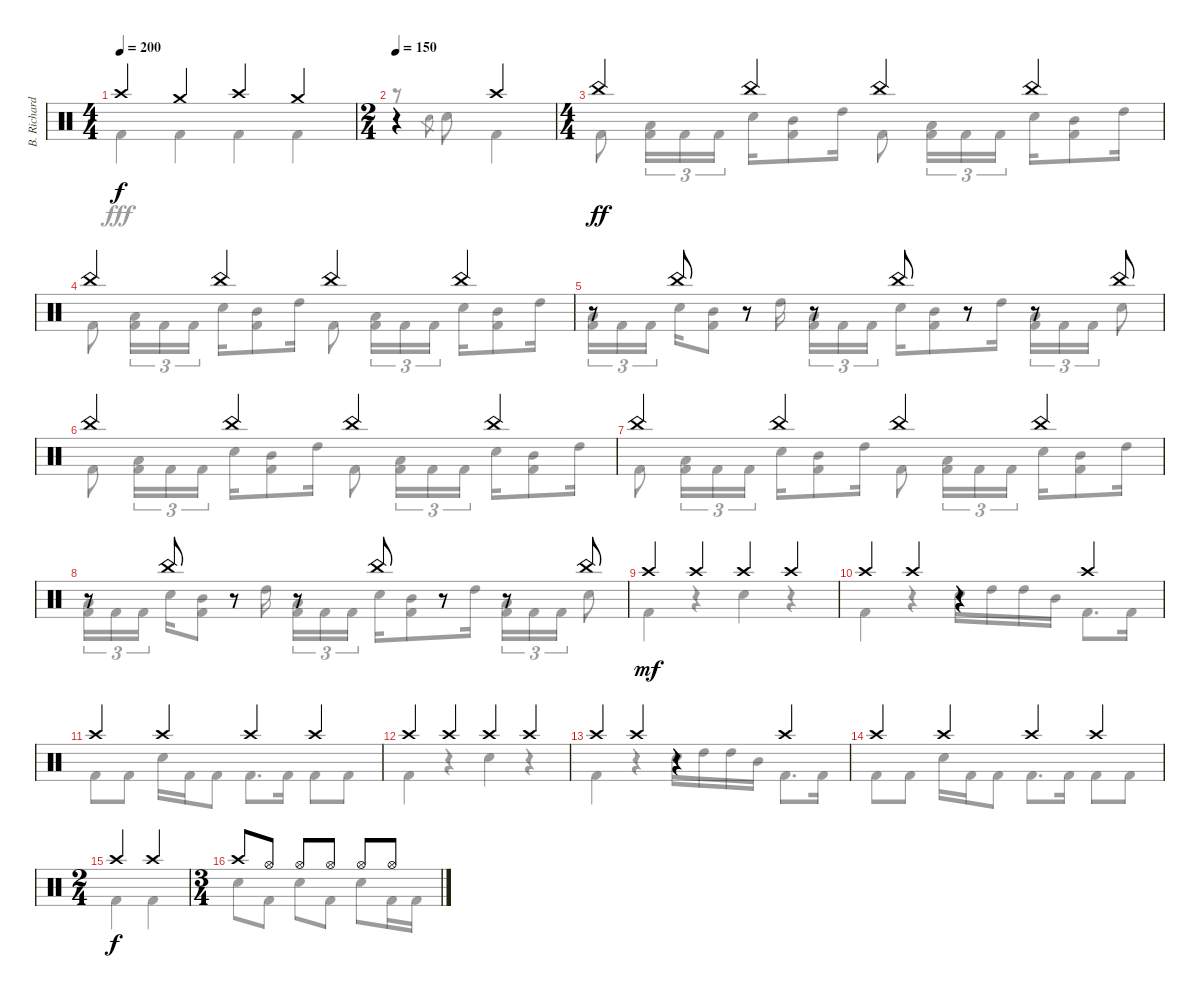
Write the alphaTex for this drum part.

\track ("B. Richardson Drums" "B. Richard") {instrument percussion}
\staff {score}
\articulation defaults
\voice
\ts (4 4)
\tempo 200
\clef neutral
\ks c "Crash high (hit)".4{dy f} "Crash medium (hit)".4 "Crash high (hit)".4 "Crash medium (hit)".4
|
\ts (2 4)
\tempo 150
r.4 "Crash high (hit)".4 |
\ts (4 4)
"China (hit)".4{dy ff} "China (hit)".4 "China (hit)".4 "China (hit)".4 |
"China (hit)".4 "China (hit)".4 "China (hit)".4 "China (hit)".4 |
r.8 "China (hit)".8 r.8 r.8 "China (hit)".8 r.8 r.8 "China (hit)".8 |
"China (hit)".4 "China (hit)".4 "China (hit)".4 "China (hit)".4 |
"China (hit)".4 "China (hit)".4 "China (hit)".4 "China (hit)".4 |
r.8 "China (hit)".8 r.8 r.8 "China (hit)".8 r.8 r.8 "China (hit)".8 |
"Crash high (hit)".4{dy mf} "Crash high (hit)".4 "Crash high (hit)".4 "Crash high (hit)".4 |
"Crash high (hit)".4 "Crash high (hit)".4 r.4 "Crash high (hit)".4 |
"Crash high (hit)".4 "Crash high (hit)".4 "Crash high (hit)".4 "Crash high (hit)".4 |
"Crash high (hit)".4 "Crash high (hit)".4 "Crash high (hit)".4 "Crash high (hit)".4 |
"Crash high (hit)".4 "Crash high (hit)".4 r.4 "Crash high (hit)".4 |
"Crash high (hit)".4 "Crash high (hit)".4 "Crash high (hit)".4 "Crash high (hit)".4 |
\ts (2 4)
"Crash high (hit)".4{dy f} "Crash high (hit)".4 |
\ts (3 4)
"Crash high (hit)".8 "Hi-Hat (open)".8 "Hi-Hat (open)".8 "Hi-Hat (open)".8 "Hi-Hat (open)".8 "Hi-Hat (open)".8
\voice
\clef neutral
\ottava regular
\simile none
\ks c "Kick (hit) 2".4{dy fff} "Kick (hit) 2".4 "Kick (hit) 2".4 "Kick (hit) 2".4
|
r.8 "Electric Snare (hit)".8{gr} "Electric Snare (hit)".8 "Kick (hit) 2".4 |
"Kick (hit) 2".8 ("Low Tom (hit)" "Kick (hit) 2").16{tu (3 2)} "Kick (hit) 2".16{tu (3 2)} "Kick (hit) 2".16{tu (3 2)} "Electric Snare (hit)".16 ("Mid Tom (hit)" "Kick (hit) 2").8 "High Tom (hit)".16 "Kick (hit) 2".8 ("Low Tom (hit)" "Kick (hit) 2").16{tu (3 2)} "Kick (hit) 2".16{tu (3 2)} "Kick (hit) 2".16{tu (3 2)} "Electric Snare (hit)".16 ("Mid Tom (hit)" "Kick (hit) 2").8 "High Tom (hit)".16 |
"Kick (hit) 2".8 ("Low Tom (hit)" "Kick (hit) 2").16{tu (3 2)} "Kick (hit) 2".16{tu (3 2)} "Kick (hit) 2".16{tu (3 2)} "Electric Snare (hit)".16 ("Mid Tom (hit)" "Kick (hit) 2").8 "High Tom (hit)".16 "Kick (hit) 2".8 ("Low Tom (hit)" "Kick (hit) 2").16{tu (3 2)} "Kick (hit) 2".16{tu (3 2)} "Kick (hit) 2".16{tu (3 2)} "Electric Snare (hit)".16 ("Mid Tom (hit)" "Kick (hit) 2").8 "High Tom (hit)".16 |
("Low Tom (hit)" "Kick (hit) 2").16{tu (3 2)} "Kick (hit) 2".16{tu (3 2)} "Kick (hit) 2".16{tu (3 2) beam splitsecondary} "Electric Snare (hit)".16 ("Mid Tom (hit)" "Kick (hit) 2").8 "High Tom (hit)".16{beam splitsecondary} ("Low Tom (hit)" "Kick (hit) 2").16{tu (3 2)} "Kick (hit) 2".16{tu (3 2)} "Kick (hit) 2".16{tu (3 2)} "Electric Snare (hit)".16 ("Mid Tom (hit)" "Kick (hit) 2").8 "High Tom (hit)".16 ("Low Tom (hit)" "Kick (hit) 2").16{tu (3 2)} "Kick (hit) 2".16{tu (3 2)} "Kick (hit) 2".16{tu (3 2)} "Electric Snare (hit)".8 |
"Kick (hit) 2".8 ("Low Tom (hit)" "Kick (hit) 2").16{tu (3 2)} "Kick (hit) 2".16{tu (3 2)} "Kick (hit) 2".16{tu (3 2)} "Electric Snare (hit)".16 ("Mid Tom (hit)" "Kick (hit) 2").8 "High Tom (hit)".16 "Kick (hit) 2".8 ("Low Tom (hit)" "Kick (hit) 2").16{tu (3 2)} "Kick (hit) 2".16{tu (3 2)} "Kick (hit) 2".16{tu (3 2)} "Electric Snare (hit)".16 ("Mid Tom (hit)" "Kick (hit) 2").8 "High Tom (hit)".16 |
"Kick (hit) 2".8 ("Low Tom (hit)" "Kick (hit) 2").16{tu (3 2)} "Kick (hit) 2".16{tu (3 2)} "Kick (hit) 2".16{tu (3 2)} "Electric Snare (hit)".16 ("Mid Tom (hit)" "Kick (hit) 2").8 "High Tom (hit)".16 "Kick (hit) 2".8 ("Low Tom (hit)" "Kick (hit) 2").16{tu (3 2)} "Kick (hit) 2".16{tu (3 2)} "Kick (hit) 2".16{tu (3 2)} "Electric Snare (hit)".16 ("Mid Tom (hit)" "Kick (hit) 2").8 "High Tom (hit)".16 |
("Low Tom (hit)" "Kick (hit) 2").16{tu (3 2)} "Kick (hit) 2".16{tu (3 2)} "Kick (hit) 2".16{tu (3 2) beam splitsecondary} "Electric Snare (hit)".16 ("Mid Tom (hit)" "Kick (hit) 2").8 "High Tom (hit)".16{beam splitsecondary} ("Low Tom (hit)" "Kick (hit) 2").16{tu (3 2)} "Kick (hit) 2".16{tu (3 2)} "Kick (hit) 2".16{tu (3 2)} "Electric Snare (hit)".16 ("Mid Tom (hit)" "Kick (hit) 2").8 "High Tom (hit)".16 ("Low Tom (hit)" "Kick (hit) 2").16{tu (3 2)} "Kick (hit) 2".16{tu (3 2)} "Kick (hit) 2".16{tu (3 2)} "Electric Snare (hit)".8 |
"Kick (hit) 2".4 r.4 "Electric Snare (hit)".4 r.4 |
"Kick (hit) 2".4 r.4 "Electric Snare (hit)".16 "High Tom (hit)".16 "High Tom (hit)".16 "Mid Tom (hit)".16 "Kick (hit) 2".8{d} "Kick (hit) 2".16 |
"Kick (hit) 2".8 "Kick (hit) 2".8 "Electric Snare (hit)".16 "Kick (hit) 2".16 "Kick (hit) 2".8 "Kick (hit) 2".8{d} "Kick (hit) 2".16 "Kick (hit) 2".8 "Kick (hit) 2".8 |
"Kick (hit) 2".4 r.4 "Electric Snare (hit)".4 r.4 |
"Kick (hit) 2".4 r.4 "Electric Snare (hit)".16 "High Tom (hit)".16 "High Tom (hit)".16 "Mid Tom (hit)".16 "Kick (hit) 2".8{d} "Kick (hit) 2".16 |
"Kick (hit) 2".8 "Kick (hit) 2".8 "Electric Snare (hit)".16 "Kick (hit) 2".16 "Kick (hit) 2".8 "Kick (hit) 2".8{d} "Kick (hit) 2".16 "Kick (hit) 2".8 "Kick (hit) 2".8 |
"Kick (hit) 2".4 "Kick (hit) 2".4 |
"Electric Snare (hit)".8 "Kick (hit) 2".8 "Electric Snare (hit)".8 "Kick (hit) 2".8 "Electric Snare (hit)".8 "Kick (hit) 2".16 "Kick (hit) 2".16
